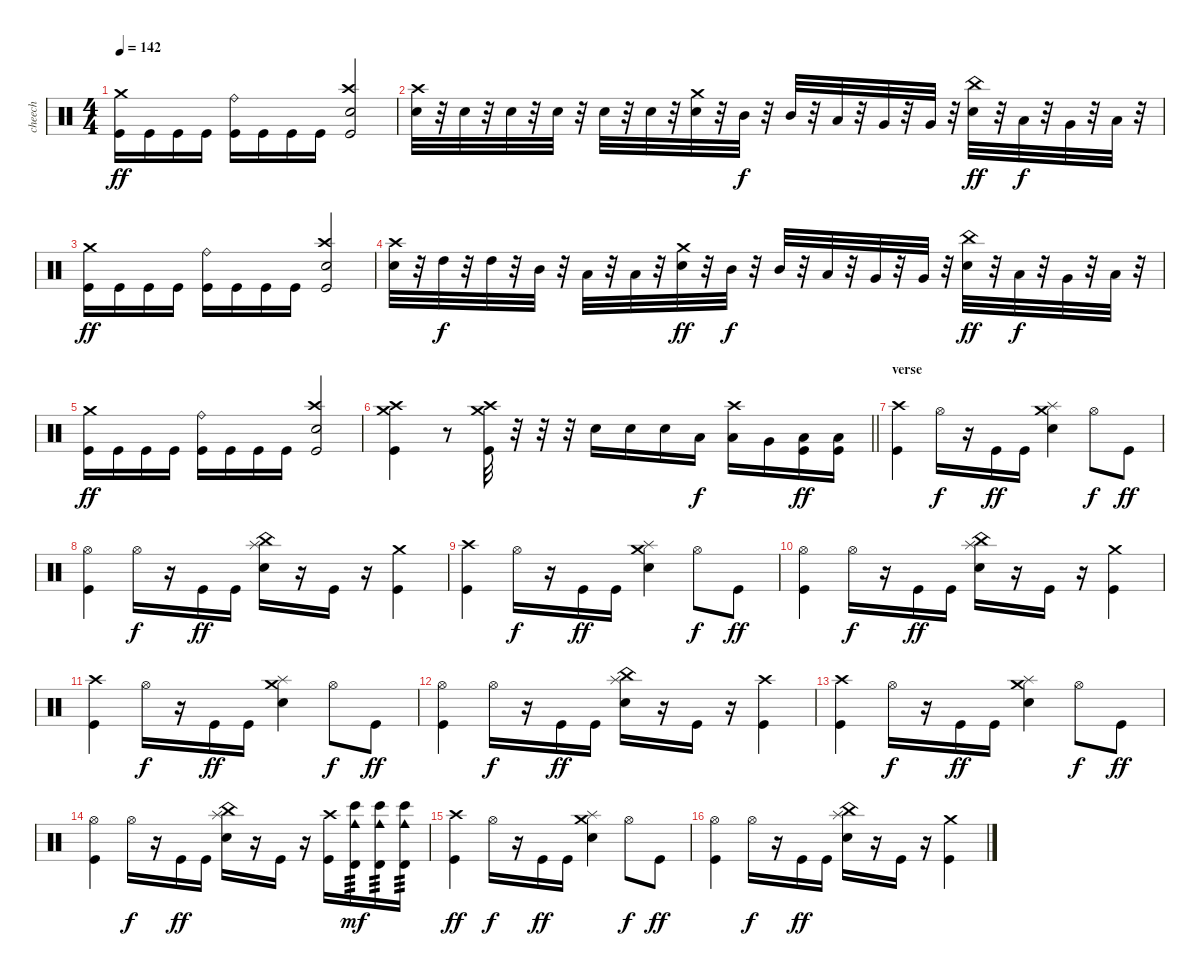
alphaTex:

\track ("cheech" "cheech") {instrument percussion}
\staff {score}
\articulation defaults
\ts (4 4)
\tempo 142
\clef neutral
\ks c
("Crash medium (hit)" "Kick (hit)").16{dy ff} "Kick (hit)".16 "Kick (hit)".16 "Kick (hit)".16 ("Ride (bell)" "Kick (hit)").16 "Kick (hit)".16 "Kick (hit)".16 "Kick (hit)".16 ("Crash high (hit)" "Electric Snare (hit)" "Kick (hit)").2 |
("Crash high (hit)" "Electric Snare (hit)").32 r.32 "Electric Snare (hit)".32 r.32 "Electric Snare (hit)".32 r.32 "Electric Snare (hit)".32 r.32 "Electric Snare (hit)".32 r.32 "Electric Snare (hit)".32 r.32 ("Crash medium (hit)" "Electric Snare (hit)").32 r.32 "Mid Tom (hit)".32{dy f} r.32 "Mid Tom (hit)".32 r.32 "Low Tom (hit)".32 r.32 "Very Low Tom (hit)".32 r.32 "Very Low Tom (hit)".32 r.32 ("China (hit)" "Electric Snare (hit)").32{dy ff} r.32 "Low Tom (hit)".32{dy f} r.32 "Very Low Tom (hit)".32 r.32 "Low Floor Tom (hit)".32 r.32 |
("Crash medium (hit)" "Kick (hit)").16{dy ff} "Kick (hit)".16 "Kick (hit)".16 "Kick (hit)".16 ("Ride (bell)" "Kick (hit)").16 "Kick (hit)".16 "Kick (hit)".16 "Kick (hit)".16 ("Crash high (hit)" "Electric Snare (hit)" "Kick (hit)").2 |
("Crash high (hit)" "Electric Snare (hit)").32 r.32 "High Tom (hit)".32{dy f} r.32 "High Tom (hit)".32 r.32 "Mid Tom (hit)".32 r.32 "Low Tom (hit)".32 r.32 "Low Tom (hit)".32 r.32 ("Crash medium (hit)" "Electric Snare (hit)").32{dy ff} r.32 "Mid Tom (hit)".32{dy f} r.32 "Mid Tom (hit)".32 r.32 "Low Tom (hit)".32 r.32 "Very Low Tom (hit)".32 r.32 "Very Low Tom (hit)".32 r.32 ("China (hit)" "Electric Snare (hit)").32{dy ff} r.32 "Low Tom (hit)".32{dy f} r.32 "Very Low Tom (hit)".32 r.32 "Low Floor Tom (hit)".32 r.32 |
("Crash medium (hit)" "Kick (hit)").16{dy ff} "Kick (hit)".16 "Kick (hit)".16 "Kick (hit)".16 ("Ride (bell)" "Kick (hit)").16 "Kick (hit)".16 "Kick (hit)".16 "Kick (hit)".16 ("Crash high (hit)" "Electric Snare (hit)" "Kick (hit)").2 |
\barLineRight lightlight
("Crash high (hit)" "Crash medium (hit)" "Kick (hit)").4 r.8 ("Crash medium (hit)" "Crash high (hit)" "Kick (hit)").32 r.32 r.32 r.32 "Electric Snare (hit)".16 "Electric Snare (hit)".16 "Electric Snare (hit)".16 "Low Tom (hit)".16{dy f} ("Crash high (hit)" "Low Tom (hit)").16 "Very Low Tom (hit)".16 ("Low Floor Tom (hit)" "Kick (hit)").16{dy ff} ("Low Floor Tom (hit)" "Kick (hit)").16 |
\section ("" "verse")
("Crash high (hit)" "Kick (hit)").4 "Hi-Hat (open)".16{dy f} r.16 "Kick (hit)".16{dy ff} "Kick (hit)".16 ("Crash medium (hit)" "Splash (hit)" "Electric Snare (hit)").4 "Hi-Hat (open)".8{dy f} "Kick (hit)".8{dy ff} |
("Hi-Hat (open)" "Kick (hit)").4 "Hi-Hat (open)".16{dy f} r.16 "Kick (hit)".16{dy ff} "Kick (hit)".16 ("China (hit)" "Splash (hit)" "Electric Snare (hit)").16 r.16 "Kick (hit)".16 r.16 ("Crash medium (hit)" "Kick (hit)").4 |
("Crash high (hit)" "Kick (hit)").4 "Hi-Hat (open)".16{dy f} r.16 "Kick (hit)".16{dy ff} "Kick (hit)".16 ("Crash medium (hit)" "Splash (hit)" "Electric Snare (hit)").4 "Hi-Hat (open)".8{dy f} "Kick (hit)".8{dy ff} |
("Hi-Hat (open)" "Kick (hit)").4 "Hi-Hat (open)".16{dy f} r.16 "Kick (hit)".16{dy ff} "Kick (hit)".16 ("China (hit)" "Splash (hit)" "Electric Snare (hit)").16 r.16 "Kick (hit)".16 r.16 ("Crash medium (hit)" "Kick (hit)").4 |
("Crash high (hit)" "Kick (hit)").4 "Hi-Hat (open)".16{dy f} r.16 "Kick (hit)".16{dy ff} "Kick (hit)".16 ("Crash medium (hit)" "Splash (hit)" "Electric Snare (hit)").4 "Hi-Hat (open)".8{dy f} "Kick (hit)".8{dy ff} |
("Hi-Hat (open)" "Kick (hit)").4 "Hi-Hat (open)".16{dy f} r.16 "Kick (hit)".16{dy ff} "Kick (hit)".16 ("China (hit)" "Splash (hit)" "Electric Snare (hit)").16 r.16 "Kick (hit)".16 r.16 ("Crash high (hit)" "Kick (hit)").4 |
("Crash high (hit)" "Kick (hit)").4 "Hi-Hat (open)".16{dy f} r.16 "Kick (hit)".16{dy ff} "Kick (hit)".16 ("Crash medium (hit)" "Splash (hit)" "Electric Snare (hit)").4 "Hi-Hat (open)".8{dy f} "Kick (hit)".8{dy ff} |
("Hi-Hat (open)" "Kick (hit)").4 "Hi-Hat (open)".16{dy f} r.16 "Kick (hit)".16{dy ff} "Kick (hit)".16 ("China (hit)" "Splash (hit)" "Electric Snare (hit)").16 r.16 "Kick (hit)".16 r.16 ("Crash high (hit)" "Kick (hit)").16 ("Cowbell medium (hit)" "Timbale high (hit)" "Bongo High (hit)").16{tp 3 dy mf} ("Cowbell medium (hit)" "Timbale high (hit)" "Bongo High (hit)").16{tp 3} ("Cowbell medium (hit)" "Timbale high (hit)" "Bongo High (hit)").16{tp 3} |
("Crash high (hit)" "Kick (hit)").4{dy ff} "Hi-Hat (open)".16{dy f} r.16 "Kick (hit)".16{dy ff} "Kick (hit)".16 ("Crash medium (hit)" "Splash (hit)" "Electric Snare (hit)").4 "Hi-Hat (open)".8{dy f} "Kick (hit)".8{dy ff} |
("Hi-Hat (open)" "Kick (hit)").4 "Hi-Hat (open)".16{dy f} r.16 "Kick (hit)".16{dy ff} "Kick (hit)".16 ("China (hit)" "Splash (hit)" "Electric Snare (hit)").16 r.16 "Kick (hit)".16 r.16 ("Crash medium (hit)" "Kick (hit)").4
